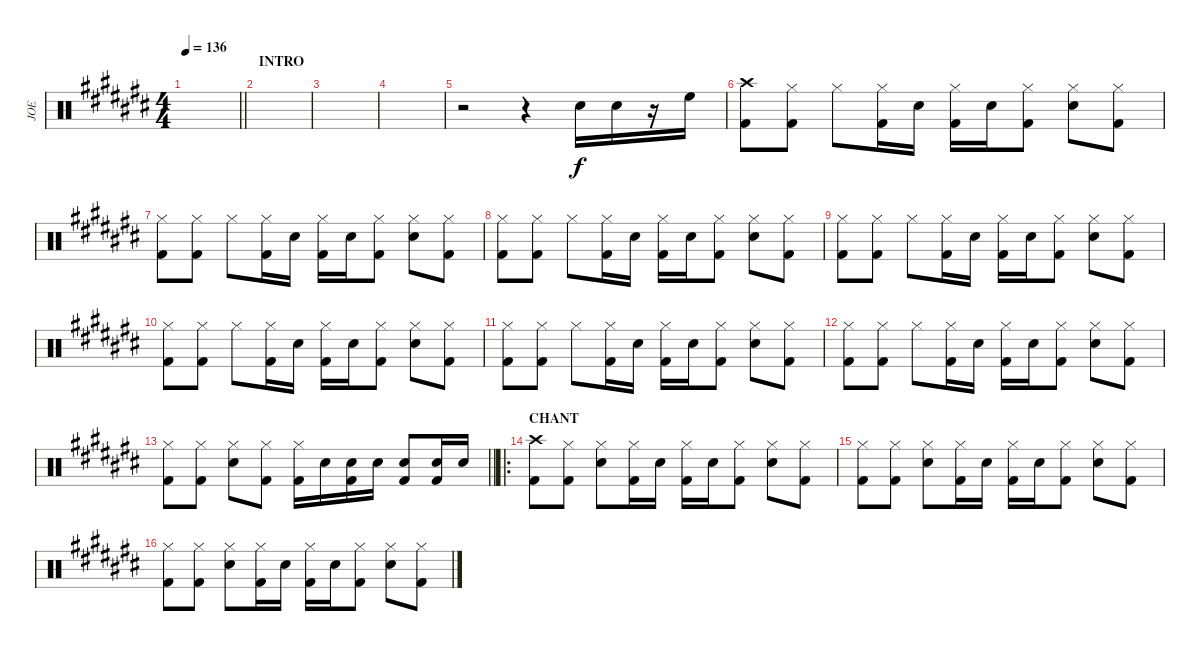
\track ("JOE" "JOE") {instrument percussion}
\staff {score}
\articulation defaults
\ts (4 4)
\tempo 136
\clef neutral
\barLineRight lightlight
\ks c#
|
\section ("" "INTRO")
|
|
|
r.2 r.4 "Snare (hit) 2".16 "Snare (hit) 2".16 r.16 "High Floor Tom (hit)".16 |
("Crash high (hit)" "Kick (hit) 2").8 ("Hi-Hat (closed)" "Kick (hit) 2").8 "Hi-Hat (closed)".8 ("Hi-Hat (closed)" "Kick (hit) 2").16 "Snare (hit) 2".16 ("Hi-Hat (closed)" "Kick (hit) 2").16 "Snare (hit) 2".16 ("Hi-Hat (closed)" "Kick (hit) 2").8 ("Hi-Hat (closed)" "Snare (hit) 2").8 ("Hi-Hat (closed)" "Kick (hit) 2").8 |
("Hi-Hat (closed)" "Kick (hit) 2").8 ("Hi-Hat (closed)" "Kick (hit) 2").8 "Hi-Hat (closed)".8 ("Hi-Hat (closed)" "Kick (hit) 2").16 "Snare (hit) 2".16 ("Hi-Hat (closed)" "Kick (hit) 2").16 "Snare (hit) 2".16 ("Hi-Hat (closed)" "Kick (hit) 2").8 ("Hi-Hat (closed)" "Snare (hit) 2").8 ("Hi-Hat (closed)" "Kick (hit) 2").8 |
("Hi-Hat (closed)" "Kick (hit) 2").8 ("Hi-Hat (closed)" "Kick (hit) 2").8 "Hi-Hat (closed)".8 ("Hi-Hat (closed)" "Kick (hit) 2").16 "Snare (hit) 2".16 ("Hi-Hat (closed)" "Kick (hit) 2").16 "Snare (hit) 2".16 ("Hi-Hat (closed)" "Kick (hit) 2").8 ("Hi-Hat (closed)" "Snare (hit) 2").8 ("Hi-Hat (closed)" "Kick (hit) 2").8 |
("Hi-Hat (closed)" "Kick (hit) 2").8 ("Hi-Hat (closed)" "Kick (hit) 2").8 "Hi-Hat (closed)".8 ("Hi-Hat (closed)" "Kick (hit) 2").16 "Snare (hit) 2".16 ("Hi-Hat (closed)" "Kick (hit) 2").16 "Snare (hit) 2".16 ("Hi-Hat (closed)" "Kick (hit) 2").8 ("Hi-Hat (closed)" "Snare (hit) 2").8 ("Hi-Hat (closed)" "Kick (hit) 2").8 |
("Hi-Hat (closed)" "Kick (hit) 2").8 ("Hi-Hat (closed)" "Kick (hit) 2").8 "Hi-Hat (closed)".8 ("Hi-Hat (closed)" "Kick (hit) 2").16 "Snare (hit) 2".16 ("Hi-Hat (closed)" "Kick (hit) 2").16 "Snare (hit) 2".16 ("Hi-Hat (closed)" "Kick (hit) 2").8 ("Hi-Hat (closed)" "Snare (hit) 2").8 ("Hi-Hat (closed)" "Kick (hit) 2").8 |
("Hi-Hat (closed)" "Kick (hit) 2").8 ("Hi-Hat (closed)" "Kick (hit) 2").8 "Hi-Hat (closed)".8 ("Hi-Hat (closed)" "Kick (hit) 2").16 "Snare (hit) 2".16 ("Hi-Hat (closed)" "Kick (hit) 2").16 "Snare (hit) 2".16 ("Hi-Hat (closed)" "Kick (hit) 2").8 ("Hi-Hat (closed)" "Snare (hit) 2").8 ("Hi-Hat (closed)" "Kick (hit) 2").8 |
("Hi-Hat (closed)" "Kick (hit) 2").8 ("Hi-Hat (closed)" "Kick (hit) 2").8 "Hi-Hat (closed)".8 ("Hi-Hat (closed)" "Kick (hit) 2").16 "Snare (hit) 2".16 ("Hi-Hat (closed)" "Kick (hit) 2").16 "Snare (hit) 2".16 ("Hi-Hat (closed)" "Kick (hit) 2").8 ("Hi-Hat (closed)" "Snare (hit) 2").8 ("Hi-Hat (closed)" "Kick (hit) 2").8 |
\barLineRight lightlight
("Hi-Hat (closed)" "Kick (hit) 2").8 ("Hi-Hat (closed)" "Kick (hit) 2").8 ("Hi-Hat (closed)" "Snare (hit) 2").8 ("Hi-Hat (closed)" "Kick (hit) 2").8 ("Hi-Hat (closed)" "Kick (hit) 2").16 "Snare (hit) 2".16 ("Snare (hit) 2" "Kick (hit) 2").16 "Snare (hit) 2".16 ("Snare (hit) 2" "Kick (hit) 2").8 ("Snare (hit) 2" "Kick (hit) 2").16 "Snare (hit) 2".16 |
\ro
\section ("" "CHANT")
("Crash high (hit)" "Kick (hit) 2").8 ("Hi-Hat (closed)" "Kick (hit) 2").8 ("Hi-Hat (closed)" "Snare (hit) 2").8 ("Hi-Hat (closed)" "Kick (hit) 2").16 "Snare (hit) 2".16 ("Hi-Hat (closed)" "Kick (hit) 2").16 "Snare (hit) 2".16 ("Hi-Hat (closed)" "Kick (hit) 2").8 ("Hi-Hat (closed)" "Snare (hit) 2").8 ("Hi-Hat (closed)" "Kick (hit) 2").8 |
("Hi-Hat (closed)" "Kick (hit) 2").8 ("Hi-Hat (closed)" "Kick (hit) 2").8 ("Hi-Hat (closed)" "Snare (hit) 2").8 ("Hi-Hat (closed)" "Kick (hit) 2").16 "Snare (hit) 2".16 ("Hi-Hat (closed)" "Kick (hit) 2").16 "Snare (hit) 2".16 ("Hi-Hat (closed)" "Kick (hit) 2").8 ("Hi-Hat (closed)" "Snare (hit) 2").8 ("Hi-Hat (closed)" "Kick (hit) 2").8 |
("Hi-Hat (closed)" "Kick (hit) 2").8 ("Hi-Hat (closed)" "Kick (hit) 2").8 ("Hi-Hat (closed)" "Snare (hit) 2").8 ("Hi-Hat (closed)" "Kick (hit) 2").16 "Snare (hit) 2".16 ("Hi-Hat (closed)" "Kick (hit) 2").16 "Snare (hit) 2".16 ("Hi-Hat (closed)" "Kick (hit) 2").8 ("Hi-Hat (closed)" "Snare (hit) 2").8 ("Hi-Hat (closed)" "Kick (hit) 2").8
